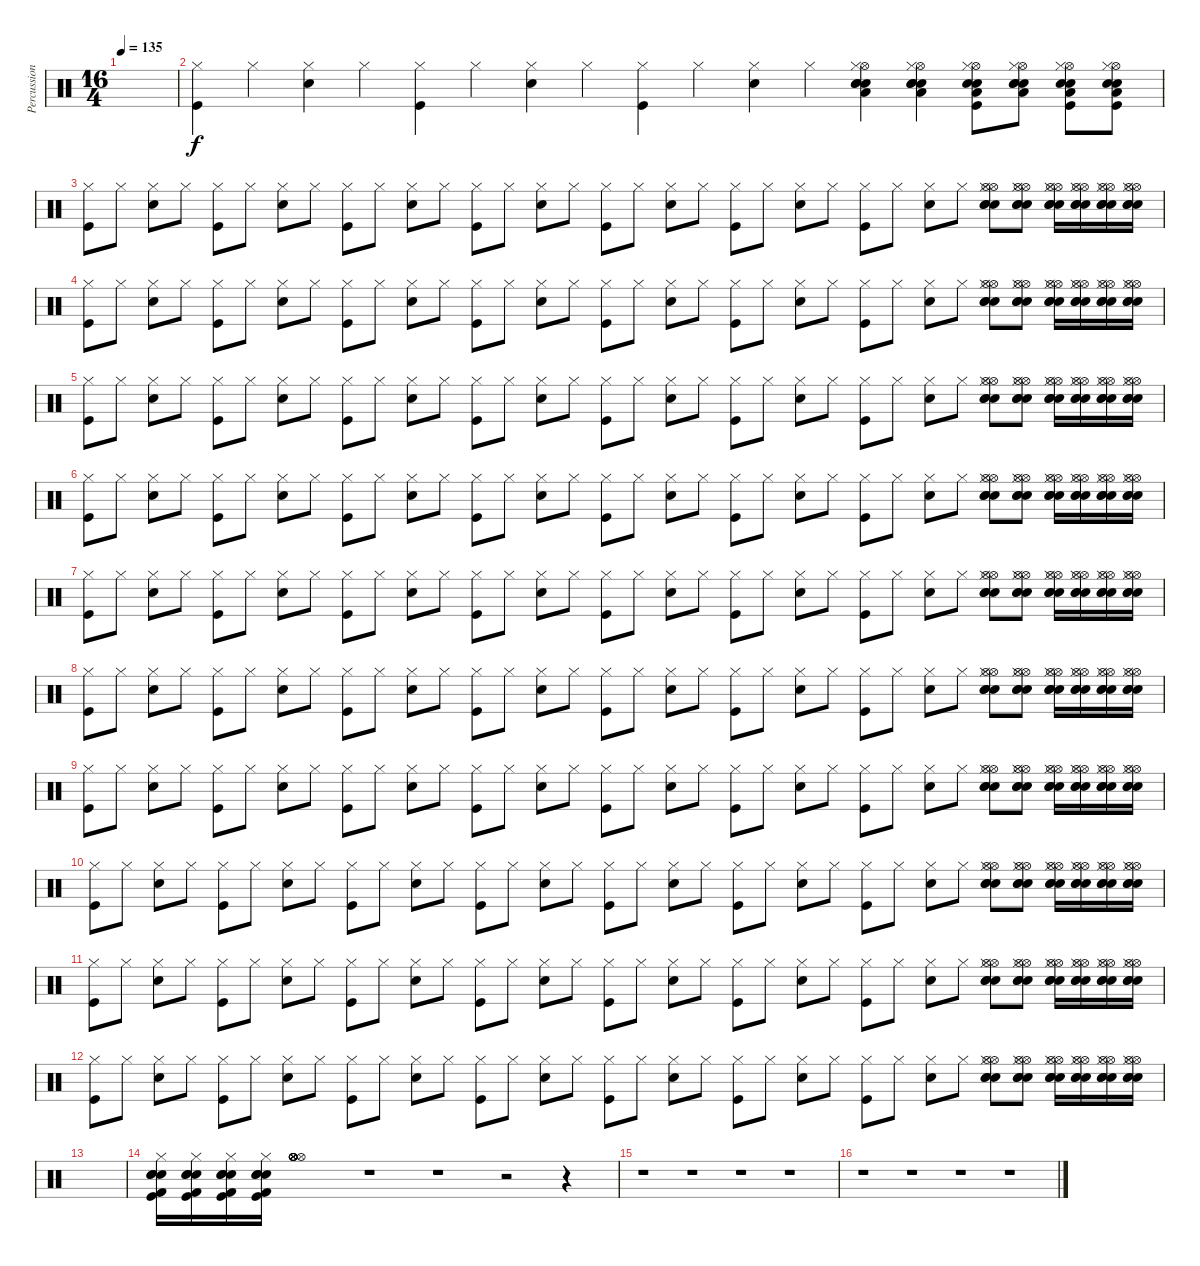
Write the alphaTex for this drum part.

\track ("Percussion" "Percussion") {instrument percussion}
\staff {score}
\articulation defaults
\ts (16 4)
\tempo 135
\clef neutral
\ks c
|
("Hi-Hat (closed)" "Kick (hit)").4 "Hi-Hat (closed)".4 ("Hi-Hat (closed)" "Snare (hit) 2").4 "Hi-Hat (closed)".4 ("Hi-Hat (closed)" "Kick (hit)").4 "Hi-Hat (closed)".4 ("Hi-Hat (closed)" "Snare (hit) 2").4 "Hi-Hat (closed)".4 ("Hi-Hat (closed)" "Kick (hit)").4 "Hi-Hat (closed)".4 ("Hi-Hat (closed)" "Snare (hit) 2").4 "Hi-Hat (closed)".4 ("Low Tom (hit)" "Hi-Hat (open)" "Hi-Hat (closed)" "Snare (hit) 2" "Snare (hit) 2" "Snare (hit) 2").4 ("Low Tom (hit)" "Hi-Hat (open)" "Hi-Hat (closed)" "Snare (hit) 2" "Snare (hit) 2" "Snare (hit) 2").4 ("Low Tom (hit)" "Hi-Hat (open)" "Hi-Hat (closed)" "Kick (hit)" "Snare (hit) 2" "Snare (hit) 2").8 ("Low Tom (hit)" "Hi-Hat (open)" "Hi-Hat (closed)" "Snare (hit) 2" "Snare (hit) 2" "Snare (hit) 2").8 ("Low Tom (hit)" "Hi-Hat (open)" "Hi-Hat (closed)" "Kick (hit)" "Snare (hit) 2" "Snare (hit) 2").8 ("Low Tom (hit)" "Hi-Hat (open)" "Hi-Hat (closed)" "Kick (hit)" "Snare (hit) 2" "Snare (hit) 2").8 |
("Hi-Hat (closed)" "Kick (hit)").8 "Hi-Hat (closed)".8 ("Hi-Hat (closed)" "Snare (hit) 2").8 "Hi-Hat (closed)".8 ("Hi-Hat (closed)" "Kick (hit)").8 "Hi-Hat (closed)".8 ("Hi-Hat (closed)" "Snare (hit) 2").8 "Hi-Hat (closed)".8 ("Hi-Hat (closed)" "Kick (hit)").8 "Hi-Hat (closed)".8 ("Hi-Hat (closed)" "Snare (hit) 2").8 "Hi-Hat (closed)".8 ("Hi-Hat (closed)" "Kick (hit)").8 "Hi-Hat (closed)".8 ("Hi-Hat (closed)" "Snare (hit) 2").8 "Hi-Hat (closed)".8 ("Hi-Hat (closed)" "Kick (hit)").8 "Hi-Hat (closed)".8 ("Hi-Hat (closed)" "Snare (hit) 2").8 "Hi-Hat (closed)".8 ("Hi-Hat (closed)" "Kick (hit)").8 "Hi-Hat (closed)".8 ("Hi-Hat (closed)" "Snare (hit) 2").8 "Hi-Hat (closed)".8 ("Hi-Hat (closed)" "Kick (hit)").8 "Hi-Hat (closed)".8 ("Hi-Hat (closed)" "Snare (hit) 2").8 "Hi-Hat (closed)".8 ("Hi-Hat (open)" "Hi-Hat (open)" "Hi-Hat (closed)" "Electric Snare (hit)" "Electric Snare (hit)" "Snare (hit) 2").8 ("Hi-Hat (open)" "Hi-Hat (open)" "Hi-Hat (closed)" "Electric Snare (hit)" "Electric Snare (hit)" "Snare (hit) 2").8 ("Hi-Hat (open)" "Hi-Hat (open)" "Hi-Hat (closed)" "Snare (hit) 2" "Snare (hit) 2" "Snare (hit) 2").16 ("Hi-Hat (open)" "Hi-Hat (open)" "Hi-Hat (closed)" "Snare (hit) 2" "Snare (hit) 2" "Snare (hit) 2").16 ("Hi-Hat (open)" "Hi-Hat (open)" "Hi-Hat (closed)" "Snare (hit) 2" "Snare (hit) 2" "Snare (hit) 2").16 ("Hi-Hat (open)" "Hi-Hat (open)" "Hi-Hat (closed)" "Snare (hit) 2" "Snare (hit) 2" "Snare (hit) 2").16 |
("Hi-Hat (closed)" "Kick (hit)").8 "Hi-Hat (closed)".8 ("Hi-Hat (closed)" "Snare (hit) 2").8 "Hi-Hat (closed)".8 ("Hi-Hat (closed)" "Kick (hit)").8 "Hi-Hat (closed)".8 ("Hi-Hat (closed)" "Snare (hit) 2").8 "Hi-Hat (closed)".8 ("Hi-Hat (closed)" "Kick (hit)").8 "Hi-Hat (closed)".8 ("Hi-Hat (closed)" "Snare (hit) 2").8 "Hi-Hat (closed)".8 ("Hi-Hat (closed)" "Kick (hit)").8 "Hi-Hat (closed)".8 ("Hi-Hat (closed)" "Snare (hit) 2").8 "Hi-Hat (closed)".8 ("Hi-Hat (closed)" "Kick (hit)").8 "Hi-Hat (closed)".8 ("Hi-Hat (closed)" "Snare (hit) 2").8 "Hi-Hat (closed)".8 ("Hi-Hat (closed)" "Kick (hit)").8 "Hi-Hat (closed)".8 ("Hi-Hat (closed)" "Snare (hit) 2").8 "Hi-Hat (closed)".8 ("Hi-Hat (closed)" "Kick (hit)").8 "Hi-Hat (closed)".8 ("Hi-Hat (closed)" "Snare (hit) 2").8 "Hi-Hat (closed)".8 ("Hi-Hat (open)" "Hi-Hat (open)" "Hi-Hat (closed)" "Electric Snare (hit)" "Electric Snare (hit)" "Snare (hit) 2").8 ("Hi-Hat (open)" "Hi-Hat (open)" "Hi-Hat (closed)" "Electric Snare (hit)" "Electric Snare (hit)" "Snare (hit) 2").8 ("Hi-Hat (open)" "Hi-Hat (open)" "Hi-Hat (closed)" "Snare (hit) 2" "Snare (hit) 2" "Snare (hit) 2").16 ("Hi-Hat (open)" "Hi-Hat (open)" "Hi-Hat (closed)" "Snare (hit) 2" "Snare (hit) 2" "Snare (hit) 2").16 ("Hi-Hat (open)" "Hi-Hat (open)" "Hi-Hat (closed)" "Snare (hit) 2" "Snare (hit) 2" "Snare (hit) 2").16 ("Hi-Hat (open)" "Hi-Hat (open)" "Hi-Hat (closed)" "Snare (hit) 2" "Snare (hit) 2" "Snare (hit) 2").16 |
("Hi-Hat (closed)" "Kick (hit)").8 "Hi-Hat (closed)".8 ("Hi-Hat (closed)" "Snare (hit) 2").8 "Hi-Hat (closed)".8 ("Hi-Hat (closed)" "Kick (hit)").8 "Hi-Hat (closed)".8 ("Hi-Hat (closed)" "Snare (hit) 2").8 "Hi-Hat (closed)".8 ("Hi-Hat (closed)" "Kick (hit)").8 "Hi-Hat (closed)".8 ("Hi-Hat (closed)" "Snare (hit) 2").8 "Hi-Hat (closed)".8 ("Hi-Hat (closed)" "Kick (hit)").8 "Hi-Hat (closed)".8 ("Hi-Hat (closed)" "Snare (hit) 2").8 "Hi-Hat (closed)".8 ("Hi-Hat (closed)" "Kick (hit)").8 "Hi-Hat (closed)".8 ("Hi-Hat (closed)" "Snare (hit) 2").8 "Hi-Hat (closed)".8 ("Hi-Hat (closed)" "Kick (hit)").8 "Hi-Hat (closed)".8 ("Hi-Hat (closed)" "Snare (hit) 2").8 "Hi-Hat (closed)".8 ("Hi-Hat (closed)" "Kick (hit)").8 "Hi-Hat (closed)".8 ("Hi-Hat (closed)" "Snare (hit) 2").8 "Hi-Hat (closed)".8 ("Hi-Hat (open)" "Hi-Hat (open)" "Hi-Hat (closed)" "Electric Snare (hit)" "Electric Snare (hit)" "Snare (hit) 2").8 ("Hi-Hat (open)" "Hi-Hat (open)" "Hi-Hat (closed)" "Electric Snare (hit)" "Electric Snare (hit)" "Snare (hit) 2").8 ("Hi-Hat (open)" "Hi-Hat (open)" "Hi-Hat (closed)" "Snare (hit) 2" "Snare (hit) 2" "Snare (hit) 2").16 ("Hi-Hat (open)" "Hi-Hat (open)" "Hi-Hat (closed)" "Snare (hit) 2" "Snare (hit) 2" "Snare (hit) 2").16 ("Hi-Hat (open)" "Hi-Hat (open)" "Hi-Hat (closed)" "Snare (hit) 2" "Snare (hit) 2" "Snare (hit) 2").16 ("Hi-Hat (open)" "Hi-Hat (open)" "Hi-Hat (closed)" "Snare (hit) 2" "Snare (hit) 2" "Snare (hit) 2").16 |
("Hi-Hat (closed)" "Kick (hit)").8 "Hi-Hat (closed)".8 ("Hi-Hat (closed)" "Snare (hit) 2").8 "Hi-Hat (closed)".8 ("Hi-Hat (closed)" "Kick (hit)").8 "Hi-Hat (closed)".8 ("Hi-Hat (closed)" "Snare (hit) 2").8 "Hi-Hat (closed)".8 ("Hi-Hat (closed)" "Kick (hit)").8 "Hi-Hat (closed)".8 ("Hi-Hat (closed)" "Snare (hit) 2").8 "Hi-Hat (closed)".8 ("Hi-Hat (closed)" "Kick (hit)").8 "Hi-Hat (closed)".8 ("Hi-Hat (closed)" "Snare (hit) 2").8 "Hi-Hat (closed)".8 ("Hi-Hat (closed)" "Kick (hit)").8 "Hi-Hat (closed)".8 ("Hi-Hat (closed)" "Snare (hit) 2").8 "Hi-Hat (closed)".8 ("Hi-Hat (closed)" "Kick (hit)").8 "Hi-Hat (closed)".8 ("Hi-Hat (closed)" "Snare (hit) 2").8 "Hi-Hat (closed)".8 ("Hi-Hat (closed)" "Kick (hit)").8 "Hi-Hat (closed)".8 ("Hi-Hat (closed)" "Snare (hit) 2").8 "Hi-Hat (closed)".8 ("Hi-Hat (open)" "Hi-Hat (open)" "Hi-Hat (closed)" "Electric Snare (hit)" "Electric Snare (hit)" "Snare (hit) 2").8 ("Hi-Hat (open)" "Hi-Hat (open)" "Hi-Hat (closed)" "Electric Snare (hit)" "Electric Snare (hit)" "Snare (hit) 2").8 ("Hi-Hat (open)" "Hi-Hat (open)" "Hi-Hat (closed)" "Snare (hit) 2" "Snare (hit) 2" "Snare (hit) 2").16 ("Hi-Hat (open)" "Hi-Hat (open)" "Hi-Hat (closed)" "Snare (hit) 2" "Snare (hit) 2" "Snare (hit) 2").16 ("Hi-Hat (open)" "Hi-Hat (open)" "Hi-Hat (closed)" "Snare (hit) 2" "Snare (hit) 2" "Snare (hit) 2").16 ("Hi-Hat (open)" "Hi-Hat (open)" "Hi-Hat (closed)" "Snare (hit) 2" "Snare (hit) 2" "Snare (hit) 2").16 |
("Hi-Hat (closed)" "Kick (hit)").8 "Hi-Hat (closed)".8 ("Hi-Hat (closed)" "Snare (hit) 2").8 "Hi-Hat (closed)".8 ("Hi-Hat (closed)" "Kick (hit)").8 "Hi-Hat (closed)".8 ("Hi-Hat (closed)" "Snare (hit) 2").8 "Hi-Hat (closed)".8 ("Hi-Hat (closed)" "Kick (hit)").8 "Hi-Hat (closed)".8 ("Hi-Hat (closed)" "Snare (hit) 2").8 "Hi-Hat (closed)".8 ("Hi-Hat (closed)" "Kick (hit)").8 "Hi-Hat (closed)".8 ("Hi-Hat (closed)" "Snare (hit) 2").8 "Hi-Hat (closed)".8 ("Hi-Hat (closed)" "Kick (hit)").8 "Hi-Hat (closed)".8 ("Hi-Hat (closed)" "Snare (hit) 2").8 "Hi-Hat (closed)".8 ("Hi-Hat (closed)" "Kick (hit)").8 "Hi-Hat (closed)".8 ("Hi-Hat (closed)" "Snare (hit) 2").8 "Hi-Hat (closed)".8 ("Hi-Hat (closed)" "Kick (hit)").8 "Hi-Hat (closed)".8 ("Hi-Hat (closed)" "Snare (hit) 2").8 "Hi-Hat (closed)".8 ("Hi-Hat (open)" "Hi-Hat (open)" "Hi-Hat (closed)" "Electric Snare (hit)" "Electric Snare (hit)" "Snare (hit) 2").8 ("Hi-Hat (open)" "Hi-Hat (open)" "Hi-Hat (closed)" "Electric Snare (hit)" "Electric Snare (hit)" "Snare (hit) 2").8 ("Hi-Hat (open)" "Hi-Hat (open)" "Hi-Hat (closed)" "Snare (hit) 2" "Snare (hit) 2" "Snare (hit) 2").16 ("Hi-Hat (open)" "Hi-Hat (open)" "Hi-Hat (closed)" "Snare (hit) 2" "Snare (hit) 2" "Snare (hit) 2").16 ("Hi-Hat (open)" "Hi-Hat (open)" "Hi-Hat (closed)" "Snare (hit) 2" "Snare (hit) 2" "Snare (hit) 2").16 ("Hi-Hat (open)" "Hi-Hat (open)" "Hi-Hat (closed)" "Snare (hit) 2" "Snare (hit) 2" "Snare (hit) 2").16 |
("Hi-Hat (closed)" "Kick (hit)").8 "Hi-Hat (closed)".8 ("Hi-Hat (closed)" "Snare (hit) 2").8 "Hi-Hat (closed)".8 ("Hi-Hat (closed)" "Kick (hit)").8 "Hi-Hat (closed)".8 ("Hi-Hat (closed)" "Snare (hit) 2").8 "Hi-Hat (closed)".8 ("Hi-Hat (closed)" "Kick (hit)").8 "Hi-Hat (closed)".8 ("Hi-Hat (closed)" "Snare (hit) 2").8 "Hi-Hat (closed)".8 ("Hi-Hat (closed)" "Kick (hit)").8 "Hi-Hat (closed)".8 ("Hi-Hat (closed)" "Snare (hit) 2").8 "Hi-Hat (closed)".8 ("Hi-Hat (closed)" "Kick (hit)").8 "Hi-Hat (closed)".8 ("Hi-Hat (closed)" "Snare (hit) 2").8 "Hi-Hat (closed)".8 ("Hi-Hat (closed)" "Kick (hit)").8 "Hi-Hat (closed)".8 ("Hi-Hat (closed)" "Snare (hit) 2").8 "Hi-Hat (closed)".8 ("Hi-Hat (closed)" "Kick (hit)").8 "Hi-Hat (closed)".8 ("Hi-Hat (closed)" "Snare (hit) 2").8 "Hi-Hat (closed)".8 ("Hi-Hat (open)" "Hi-Hat (open)" "Hi-Hat (closed)" "Electric Snare (hit)" "Electric Snare (hit)" "Snare (hit) 2").8 ("Hi-Hat (open)" "Hi-Hat (open)" "Hi-Hat (closed)" "Electric Snare (hit)" "Electric Snare (hit)" "Snare (hit) 2").8 ("Hi-Hat (open)" "Hi-Hat (open)" "Hi-Hat (closed)" "Snare (hit) 2" "Snare (hit) 2" "Snare (hit) 2").16 ("Hi-Hat (open)" "Hi-Hat (open)" "Hi-Hat (closed)" "Snare (hit) 2" "Snare (hit) 2" "Snare (hit) 2").16 ("Hi-Hat (open)" "Hi-Hat (open)" "Hi-Hat (closed)" "Snare (hit) 2" "Snare (hit) 2" "Snare (hit) 2").16 ("Hi-Hat (open)" "Hi-Hat (open)" "Hi-Hat (closed)" "Snare (hit) 2" "Snare (hit) 2" "Snare (hit) 2").16 |
("Hi-Hat (closed)" "Kick (hit)").8 "Hi-Hat (closed)".8 ("Hi-Hat (closed)" "Snare (hit) 2").8 "Hi-Hat (closed)".8 ("Hi-Hat (closed)" "Kick (hit)").8 "Hi-Hat (closed)".8 ("Hi-Hat (closed)" "Snare (hit) 2").8 "Hi-Hat (closed)".8 ("Hi-Hat (closed)" "Kick (hit)").8 "Hi-Hat (closed)".8 ("Hi-Hat (closed)" "Snare (hit) 2").8 "Hi-Hat (closed)".8 ("Hi-Hat (closed)" "Kick (hit)").8 "Hi-Hat (closed)".8 ("Hi-Hat (closed)" "Snare (hit) 2").8 "Hi-Hat (closed)".8 ("Hi-Hat (closed)" "Kick (hit)").8 "Hi-Hat (closed)".8 ("Hi-Hat (closed)" "Snare (hit) 2").8 "Hi-Hat (closed)".8 ("Hi-Hat (closed)" "Kick (hit)").8 "Hi-Hat (closed)".8 ("Hi-Hat (closed)" "Snare (hit) 2").8 "Hi-Hat (closed)".8 ("Hi-Hat (closed)" "Kick (hit)").8 "Hi-Hat (closed)".8 ("Hi-Hat (closed)" "Snare (hit) 2").8 "Hi-Hat (closed)".8 ("Hi-Hat (open)" "Hi-Hat (open)" "Hi-Hat (closed)" "Electric Snare (hit)" "Electric Snare (hit)" "Snare (hit) 2").8 ("Hi-Hat (open)" "Hi-Hat (open)" "Hi-Hat (closed)" "Electric Snare (hit)" "Electric Snare (hit)" "Snare (hit) 2").8 ("Hi-Hat (open)" "Hi-Hat (open)" "Hi-Hat (closed)" "Snare (hit) 2" "Snare (hit) 2" "Snare (hit) 2").16 ("Hi-Hat (open)" "Hi-Hat (open)" "Hi-Hat (closed)" "Snare (hit) 2" "Snare (hit) 2" "Snare (hit) 2").16 ("Hi-Hat (open)" "Hi-Hat (open)" "Hi-Hat (closed)" "Snare (hit) 2" "Snare (hit) 2" "Snare (hit) 2").16 ("Hi-Hat (open)" "Hi-Hat (open)" "Hi-Hat (closed)" "Snare (hit) 2" "Snare (hit) 2" "Snare (hit) 2").16 |
("Hi-Hat (closed)" "Kick (hit)").8 "Hi-Hat (closed)".8 ("Hi-Hat (closed)" "Snare (hit) 2").8 "Hi-Hat (closed)".8 ("Hi-Hat (closed)" "Kick (hit)").8 "Hi-Hat (closed)".8 ("Hi-Hat (closed)" "Snare (hit) 2").8 "Hi-Hat (closed)".8 ("Hi-Hat (closed)" "Kick (hit)").8 "Hi-Hat (closed)".8 ("Hi-Hat (closed)" "Snare (hit) 2").8 "Hi-Hat (closed)".8 ("Hi-Hat (closed)" "Kick (hit)").8 "Hi-Hat (closed)".8 ("Hi-Hat (closed)" "Snare (hit) 2").8 "Hi-Hat (closed)".8 ("Hi-Hat (closed)" "Kick (hit)").8 "Hi-Hat (closed)".8 ("Hi-Hat (closed)" "Snare (hit) 2").8 "Hi-Hat (closed)".8 ("Hi-Hat (closed)" "Kick (hit)").8 "Hi-Hat (closed)".8 ("Hi-Hat (closed)" "Snare (hit) 2").8 "Hi-Hat (closed)".8 ("Hi-Hat (closed)" "Kick (hit)").8 "Hi-Hat (closed)".8 ("Hi-Hat (closed)" "Snare (hit) 2").8 "Hi-Hat (closed)".8 ("Hi-Hat (open)" "Hi-Hat (open)" "Hi-Hat (closed)" "Electric Snare (hit)" "Electric Snare (hit)" "Snare (hit) 2").8 ("Hi-Hat (open)" "Hi-Hat (open)" "Hi-Hat (closed)" "Electric Snare (hit)" "Electric Snare (hit)" "Snare (hit) 2").8 ("Hi-Hat (open)" "Hi-Hat (open)" "Hi-Hat (closed)" "Snare (hit) 2" "Snare (hit) 2" "Snare (hit) 2").16 ("Hi-Hat (open)" "Hi-Hat (open)" "Hi-Hat (closed)" "Snare (hit) 2" "Snare (hit) 2" "Snare (hit) 2").16 ("Hi-Hat (open)" "Hi-Hat (open)" "Hi-Hat (closed)" "Snare (hit) 2" "Snare (hit) 2" "Snare (hit) 2").16 ("Hi-Hat (open)" "Hi-Hat (open)" "Hi-Hat (closed)" "Snare (hit) 2" "Snare (hit) 2" "Snare (hit) 2").16 |
("Hi-Hat (closed)" "Kick (hit)").8 "Hi-Hat (closed)".8 ("Hi-Hat (closed)" "Snare (hit) 2").8 "Hi-Hat (closed)".8 ("Hi-Hat (closed)" "Kick (hit)").8 "Hi-Hat (closed)".8 ("Hi-Hat (closed)" "Snare (hit) 2").8 "Hi-Hat (closed)".8 ("Hi-Hat (closed)" "Kick (hit)").8 "Hi-Hat (closed)".8 ("Hi-Hat (closed)" "Snare (hit) 2").8 "Hi-Hat (closed)".8 ("Hi-Hat (closed)" "Kick (hit)").8 "Hi-Hat (closed)".8 ("Hi-Hat (closed)" "Snare (hit) 2").8 "Hi-Hat (closed)".8 ("Hi-Hat (closed)" "Kick (hit)").8 "Hi-Hat (closed)".8 ("Hi-Hat (closed)" "Snare (hit) 2").8 "Hi-Hat (closed)".8 ("Hi-Hat (closed)" "Kick (hit)").8 "Hi-Hat (closed)".8 ("Hi-Hat (closed)" "Snare (hit) 2").8 "Hi-Hat (closed)".8 ("Hi-Hat (closed)" "Kick (hit)").8 "Hi-Hat (closed)".8 ("Hi-Hat (closed)" "Snare (hit) 2").8 "Hi-Hat (closed)".8 ("Hi-Hat (open)" "Hi-Hat (open)" "Hi-Hat (closed)" "Electric Snare (hit)" "Electric Snare (hit)" "Snare (hit) 2").8 ("Hi-Hat (open)" "Hi-Hat (open)" "Hi-Hat (closed)" "Electric Snare (hit)" "Electric Snare (hit)" "Snare (hit) 2").8 ("Hi-Hat (open)" "Hi-Hat (open)" "Hi-Hat (closed)" "Snare (hit) 2" "Snare (hit) 2" "Snare (hit) 2").16 ("Hi-Hat (open)" "Hi-Hat (open)" "Hi-Hat (closed)" "Snare (hit) 2" "Snare (hit) 2" "Snare (hit) 2").16 ("Hi-Hat (open)" "Hi-Hat (open)" "Hi-Hat (closed)" "Snare (hit) 2" "Snare (hit) 2" "Snare (hit) 2").16 ("Hi-Hat (open)" "Hi-Hat (open)" "Hi-Hat (closed)" "Snare (hit) 2" "Snare (hit) 2" "Snare (hit) 2").16 |
("Hi-Hat (closed)" "Kick (hit)").8 "Hi-Hat (closed)".8 ("Hi-Hat (closed)" "Snare (hit) 2").8 "Hi-Hat (closed)".8 ("Hi-Hat (closed)" "Kick (hit)").8 "Hi-Hat (closed)".8 ("Hi-Hat (closed)" "Snare (hit) 2").8 "Hi-Hat (closed)".8 ("Hi-Hat (closed)" "Kick (hit)").8 "Hi-Hat (closed)".8 ("Hi-Hat (closed)" "Snare (hit) 2").8 "Hi-Hat (closed)".8 ("Hi-Hat (closed)" "Kick (hit)").8 "Hi-Hat (closed)".8 ("Hi-Hat (closed)" "Snare (hit) 2").8 "Hi-Hat (closed)".8 ("Hi-Hat (closed)" "Kick (hit)").8 "Hi-Hat (closed)".8 ("Hi-Hat (closed)" "Snare (hit) 2").8 "Hi-Hat (closed)".8 ("Hi-Hat (closed)" "Kick (hit)").8 "Hi-Hat (closed)".8 ("Hi-Hat (closed)" "Snare (hit) 2").8 "Hi-Hat (closed)".8 ("Hi-Hat (closed)" "Kick (hit)").8 "Hi-Hat (closed)".8 ("Hi-Hat (closed)" "Snare (hit) 2").8 "Hi-Hat (closed)".8 ("Hi-Hat (open)" "Hi-Hat (open)" "Hi-Hat (closed)" "Electric Snare (hit)" "Electric Snare (hit)" "Snare (hit) 2").8 ("Hi-Hat (open)" "Hi-Hat (open)" "Hi-Hat (closed)" "Electric Snare (hit)" "Electric Snare (hit)" "Snare (hit) 2").8 ("Hi-Hat (open)" "Hi-Hat (open)" "Hi-Hat (closed)" "Snare (hit) 2" "Snare (hit) 2" "Snare (hit) 2").16 ("Hi-Hat (open)" "Hi-Hat (open)" "Hi-Hat (closed)" "Snare (hit) 2" "Snare (hit) 2" "Snare (hit) 2").16 ("Hi-Hat (open)" "Hi-Hat (open)" "Hi-Hat (closed)" "Snare (hit) 2" "Snare (hit) 2" "Snare (hit) 2").16 ("Hi-Hat (open)" "Hi-Hat (open)" "Hi-Hat (closed)" "Snare (hit) 2" "Snare (hit) 2" "Snare (hit) 2").16 |
|
("Hi-Hat (closed)" "Electric Snare (hit)" "Snare (hit) 2" "Snare (hit) 2" "Kick (hit)" "Kick (hit) 2").16 ("Hi-Hat (closed)" "Electric Snare (hit)" "Snare (hit) 2" "Snare (hit) 2" "Kick (hit)" "Kick (hit) 2").16 ("Hi-Hat (closed)" "Electric Snare (hit)" "Snare (hit) 2" "Snare (hit) 2" "Kick (hit)" "Kick (hit) 2").16 ("Hi-Hat (closed)" "Electric Snare (hit)" "Snare (hit) 2" "Snare (hit) 2" "Kick (hit)" "Kick (hit) 2").16 ("Hi-Hat (open)" "Hi-Hat (open)" "Hi-Hat (open)" "Hi-Hat (open)" "Hi-Hat (open)" "Hi-Hat (open)").1 r.1 r.1 r.2 r.4 |
r.1 r.1 r.1 r.1 |
r.1 r.1 r.1 r.1
